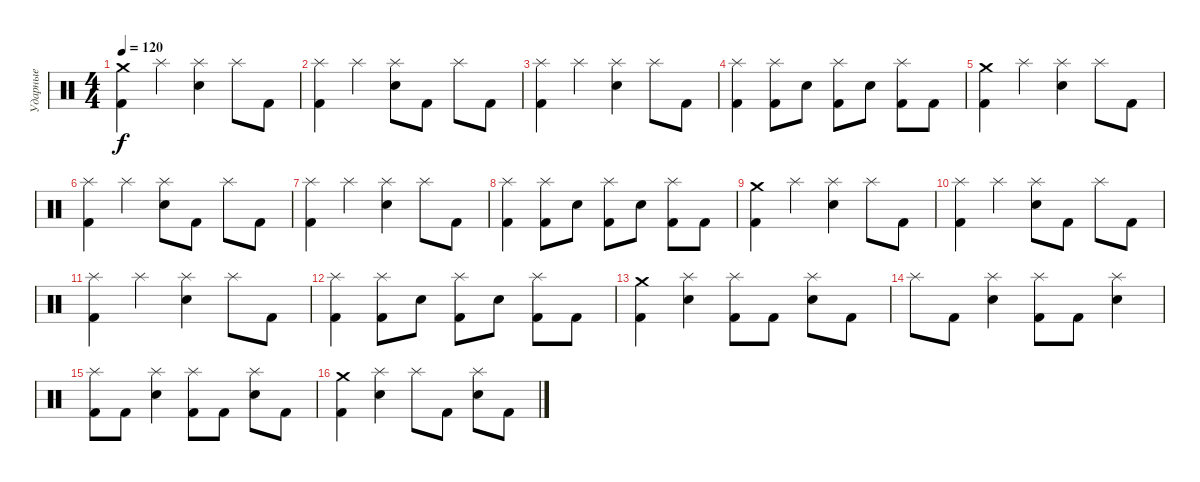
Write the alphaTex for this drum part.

\track ("Ударные" "Ударные") {instrument percussion}
\staff {score}
\articulation defaults
\ts (4 4)
\tempo 120
\clef neutral
\ks c
("Crash medium (hit)" "Kick (hit) 2").4{dy f} "Splash (hit)".4 ("Splash (hit)" "Electric Snare (hit)").4 "Splash (hit)".8 "Kick (hit) 2".8 |
("Splash (hit)" "Kick (hit) 2").4 "Splash (hit)".4 ("Splash (hit)" "Electric Snare (hit)").8 "Kick (hit) 2".8 "Splash (hit)".8 "Kick (hit) 2".8 |
("Splash (hit)" "Kick (hit) 2").4 "Splash (hit)".4 ("Splash (hit)" "Electric Snare (hit)").4 "Splash (hit)".8 "Kick (hit) 2".8 |
("Splash (hit)" "Kick (hit) 2").4 ("Splash (hit)" "Kick (hit) 2").8 "Electric Snare (hit)".8 ("Splash (hit)" "Kick (hit) 2").8 "Electric Snare (hit)".8 ("Splash (hit)" "Kick (hit) 2").8 "Kick (hit) 2".8 |
("Crash medium (hit)" "Kick (hit) 2").4 "Splash (hit)".4 ("Splash (hit)" "Electric Snare (hit)").4 "Splash (hit)".8 "Kick (hit) 2".8 |
("Splash (hit)" "Kick (hit) 2").4 "Splash (hit)".4 ("Splash (hit)" "Electric Snare (hit)").8 "Kick (hit) 2".8 "Splash (hit)".8 "Kick (hit) 2".8 |
("Splash (hit)" "Kick (hit) 2").4 "Splash (hit)".4 ("Splash (hit)" "Electric Snare (hit)").4 "Splash (hit)".8 "Kick (hit) 2".8 |
("Splash (hit)" "Kick (hit) 2").4 ("Splash (hit)" "Kick (hit) 2").8 "Electric Snare (hit)".8 ("Splash (hit)" "Kick (hit) 2").8 "Electric Snare (hit)".8 ("Splash (hit)" "Kick (hit) 2").8 "Kick (hit) 2".8 |
("Crash medium (hit)" "Kick (hit) 2").4 "Splash (hit)".4 ("Splash (hit)" "Electric Snare (hit)").4 "Splash (hit)".8 "Kick (hit) 2".8 |
("Splash (hit)" "Kick (hit) 2").4 "Splash (hit)".4 ("Splash (hit)" "Electric Snare (hit)").8 "Kick (hit) 2".8 "Splash (hit)".8 "Kick (hit) 2".8 |
("Splash (hit)" "Kick (hit) 2").4 "Splash (hit)".4 ("Splash (hit)" "Electric Snare (hit)").4 "Splash (hit)".8 "Kick (hit) 2".8 |
("Splash (hit)" "Kick (hit) 2").4 ("Splash (hit)" "Kick (hit) 2").8 "Electric Snare (hit)".8 ("Splash (hit)" "Kick (hit) 2").8 "Electric Snare (hit)".8 ("Splash (hit)" "Kick (hit) 2").8 "Kick (hit) 2".8 |
("Crash medium (hit)" "Kick (hit) 2").4 ("Splash (hit)" "Electric Snare (hit)").4 ("Splash (hit)" "Kick (hit) 2").8 "Kick (hit) 2".8 ("Splash (hit)" "Electric Snare (hit)").8 "Kick (hit) 2".8 |
"Splash (hit)".8 "Kick (hit) 2".8 ("Splash (hit)" "Electric Snare (hit)").4 ("Splash (hit)" "Kick (hit) 2").8 "Kick (hit) 2".8 ("Splash (hit)" "Electric Snare (hit)").4 |
("Splash (hit)" "Kick (hit) 2").8 "Kick (hit) 2".8 ("Splash (hit)" "Electric Snare (hit)").4 ("Splash (hit)" "Kick (hit) 2").8 "Kick (hit) 2".8 ("Splash (hit)" "Electric Snare (hit)").8 "Kick (hit) 2".8 |
("Crash medium (hit)" "Kick (hit) 2").4 ("Splash (hit)" "Electric Snare (hit)").4 "Splash (hit)".8 "Kick (hit) 2".8 ("Splash (hit)" "Electric Snare (hit)").8 "Kick (hit) 2".8
